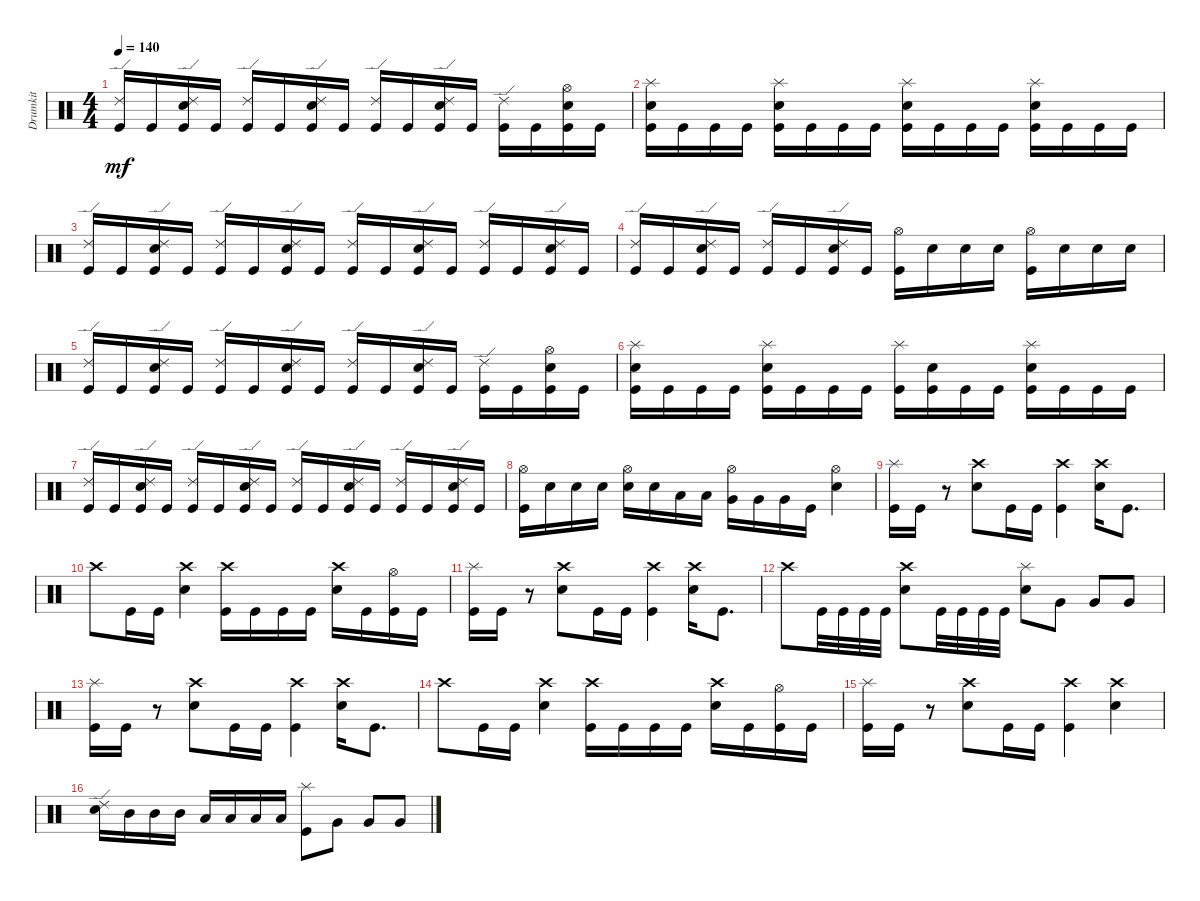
\track ("Drumkit" "Drumkit") {instrument percussion}
\staff {score}
\articulation defaults
\ts (4 4)
\tempo 140
\clef neutral
\ks c
("Kick (hit)" "Ride (edge) 2").16{dy mf} "Kick (hit)".16 ("Ride (edge) 2" "Snare (hit) 2" "Kick (hit)").16 "Kick (hit)".16 ("Kick (hit)" "Ride (edge) 2").16 "Kick (hit)".16 ("Ride (edge) 2" "Snare (hit) 2" "Kick (hit)").16 "Kick (hit)".16 ("Kick (hit)" "Ride (edge) 2").16 "Kick (hit)".16 ("Ride (edge) 2" "Snare (hit) 2" "Kick (hit)").16 "Kick (hit)".16 ("Kick (hit)" "Ride (edge) 2").16 "Kick (hit)".16 ("Snare (hit) 2" "Kick (hit)" "Hi-Hat (open)").16 "Kick (hit)".16 |
("Kick (hit)" "Splash (hit)" "Snare (hit) 2").16 "Kick (hit)".16 "Kick (hit)".16 "Kick (hit)".16 ("Kick (hit)" "Splash (hit)" "Snare (hit) 2").16 "Kick (hit)".16 "Kick (hit)".16 "Kick (hit)".16 ("Kick (hit)" "Splash (hit)" "Snare (hit) 2").16 "Kick (hit)".16 "Kick (hit)".16 "Kick (hit)".16 ("Kick (hit)" "Splash (hit)" "Snare (hit) 2").16 "Kick (hit)".16 "Kick (hit)".16 "Kick (hit)".16 |
("Kick (hit)" "Ride (edge) 2").16 "Kick (hit)".16 ("Ride (edge) 2" "Snare (hit) 2" "Kick (hit)").16 "Kick (hit)".16 ("Kick (hit)" "Ride (edge) 2").16 "Kick (hit)".16 ("Ride (edge) 2" "Snare (hit) 2" "Kick (hit)").16 "Kick (hit)".16 ("Kick (hit)" "Ride (edge) 2").16 "Kick (hit)".16 ("Ride (edge) 2" "Snare (hit) 2" "Kick (hit)").16 "Kick (hit)".16 ("Kick (hit)" "Ride (edge) 2").16 "Kick (hit)".16 ("Ride (edge) 2" "Snare (hit) 2" "Kick (hit)").16 "Kick (hit)".16 |
("Kick (hit)" "Ride (edge) 2").16 "Kick (hit)".16 ("Ride (edge) 2" "Snare (hit) 2" "Kick (hit)").16 "Kick (hit)".16 ("Kick (hit)" "Ride (edge) 2").16 "Kick (hit)".16 ("Ride (edge) 2" "Snare (hit) 2" "Kick (hit)").16 "Kick (hit)".16 ("Kick (hit)" "Hi-Hat (open)").16 "Snare (hit) 2".16 "Snare (hit) 2".16 "Snare (hit) 2".16 ("Kick (hit)" "Hi-Hat (open)").16 "Snare (hit) 2".16 "Snare (hit) 2".16 "Snare (hit) 2".16 |
("Kick (hit)" "Ride (edge) 2").16 "Kick (hit)".16 ("Ride (edge) 2" "Snare (hit) 2" "Kick (hit)").16 "Kick (hit)".16 ("Kick (hit)" "Ride (edge) 2").16 "Kick (hit)".16 ("Ride (edge) 2" "Snare (hit) 2" "Kick (hit)").16 "Kick (hit)".16 ("Kick (hit)" "Ride (edge) 2").16 "Kick (hit)".16 ("Ride (edge) 2" "Snare (hit) 2" "Kick (hit)").16 "Kick (hit)".16 ("Kick (hit)" "Ride (edge) 2").16 "Kick (hit)".16 ("Snare (hit) 2" "Kick (hit)" "Hi-Hat (open)").16 "Kick (hit)".16 |
("Kick (hit)" "Splash (hit)" "Snare (hit) 2").16 "Kick (hit)".16 "Kick (hit)".16 "Kick (hit)".16 ("Kick (hit)" "Splash (hit)" "Snare (hit) 2").16 "Kick (hit)".16 "Kick (hit)".16 "Kick (hit)".16 ("Kick (hit)" "Splash (hit)").16 ("Kick (hit)" "Snare (hit) 2").16 "Kick (hit)".16 "Kick (hit)".16 ("Kick (hit)" "Splash (hit)" "Snare (hit) 2").16 "Kick (hit)".16 "Kick (hit)".16 "Kick (hit)".16 |
("Kick (hit)" "Ride (edge) 2").16 "Kick (hit)".16 ("Ride (edge) 2" "Snare (hit) 2" "Kick (hit)").16 "Kick (hit)".16 ("Kick (hit)" "Ride (edge) 2").16 "Kick (hit)".16 ("Ride (edge) 2" "Snare (hit) 2" "Kick (hit)").16 "Kick (hit)".16 ("Kick (hit)" "Ride (edge) 2").16 "Kick (hit)".16 ("Ride (edge) 2" "Snare (hit) 2" "Kick (hit)").16 "Kick (hit)".16 ("Kick (hit)" "Ride (edge) 2").16 "Kick (hit)".16 ("Ride (edge) 2" "Snare (hit) 2" "Kick (hit)").16 "Kick (hit)".16 |
("Kick (hit)" "Hi-Hat (open)").16 "Snare (hit) 2".16 "Snare (hit) 2".16 "Snare (hit) 2".16 ("Snare (hit) 2" "Hi-Hat (open)").16 "Snare (hit) 2".16 "Low Tom (hit)".16 "Low Tom (hit)".16 ("Very Low Tom (hit)" "Hi-Hat (open)").16 "Very Low Tom (hit)".16 "Very Low Tom (hit)".16 "Kick (hit)".16 ("Snare (hit) 2" "Hi-Hat (open)").4 |
("Splash (hit)" "Kick (hit)").16 "Kick (hit)".16 r.8 ("Snare (hit) 2" "Crash high (hit)").8 "Kick (hit)".16 "Kick (hit)".16 ("Kick (hit)" "Crash high (hit)").4 ("Snare (hit) 2" "Crash high (hit)").16 "Kick (hit)".8{d} |
"Crash high (hit)".8 "Kick (hit)".16 "Kick (hit)".16 ("Snare (hit) 2" "Crash high (hit)").4 ("Kick (hit)" "Crash high (hit)").16 "Kick (hit)".16 "Kick (hit)".16 "Kick (hit)".16 ("Snare (hit) 2" "Crash high (hit)").16 "Kick (hit)".16 ("Kick (hit)" "Hi-Hat (open)").16 "Kick (hit)".16 |
("Splash (hit)" "Kick (hit)").16 "Kick (hit)".16 r.8 ("Snare (hit) 2" "Crash high (hit)").8 "Kick (hit)".16 "Kick (hit)".16 ("Kick (hit)" "Crash high (hit)").4 ("Snare (hit) 2" "Crash high (hit)").16 "Kick (hit)".8{d} |
"Crash high (hit)".8 "Kick (hit)".32 "Kick (hit)".32 "Kick (hit)".32 "Kick (hit)".32 ("Snare (hit) 2" "Crash high (hit)").8 "Kick (hit)".32 "Kick (hit)".32 "Kick (hit)".32 "Kick (hit)".32 ("Snare (hit) 2" "Splash (hit)").8 "Very Low Tom (hit)".8 "Very Low Tom (hit)".8 "Very Low Tom (hit)".8 |
("Splash (hit)" "Kick (hit)").16 "Kick (hit)".16 r.8 ("Snare (hit) 2" "Crash high (hit)").8 "Kick (hit)".16 "Kick (hit)".16 ("Kick (hit)" "Crash high (hit)").4 ("Snare (hit) 2" "Crash high (hit)").16 "Kick (hit)".8{d} |
"Crash high (hit)".8 "Kick (hit)".16 "Kick (hit)".16 ("Snare (hit) 2" "Crash high (hit)").4 ("Kick (hit)" "Crash high (hit)").16 "Kick (hit)".16 "Kick (hit)".16 "Kick (hit)".16 ("Snare (hit) 2" "Crash high (hit)").16 "Kick (hit)".16 ("Kick (hit)" "Hi-Hat (open)").16 "Kick (hit)".16 |
("Splash (hit)" "Kick (hit)").16 "Kick (hit)".16 r.8 ("Snare (hit) 2" "Crash high (hit)").8 "Kick (hit)".16 "Kick (hit)".16 ("Kick (hit)" "Crash high (hit)").4 ("Snare (hit) 2" "Crash high (hit)").4 |
("Snare (hit) 2" "Ride (edge) 2").16 "Mid Tom (hit)".16 "Mid Tom (hit)".16 "Mid Tom (hit)".16 "Low Tom (hit)".16 "Low Tom (hit)".16 "Low Tom (hit)".16 "Low Tom (hit)".16 ("Kick (hit)" "Splash (hit)").8 "Very Low Tom (hit)".8 "Very Low Tom (hit)".8 "Very Low Tom (hit)".8
